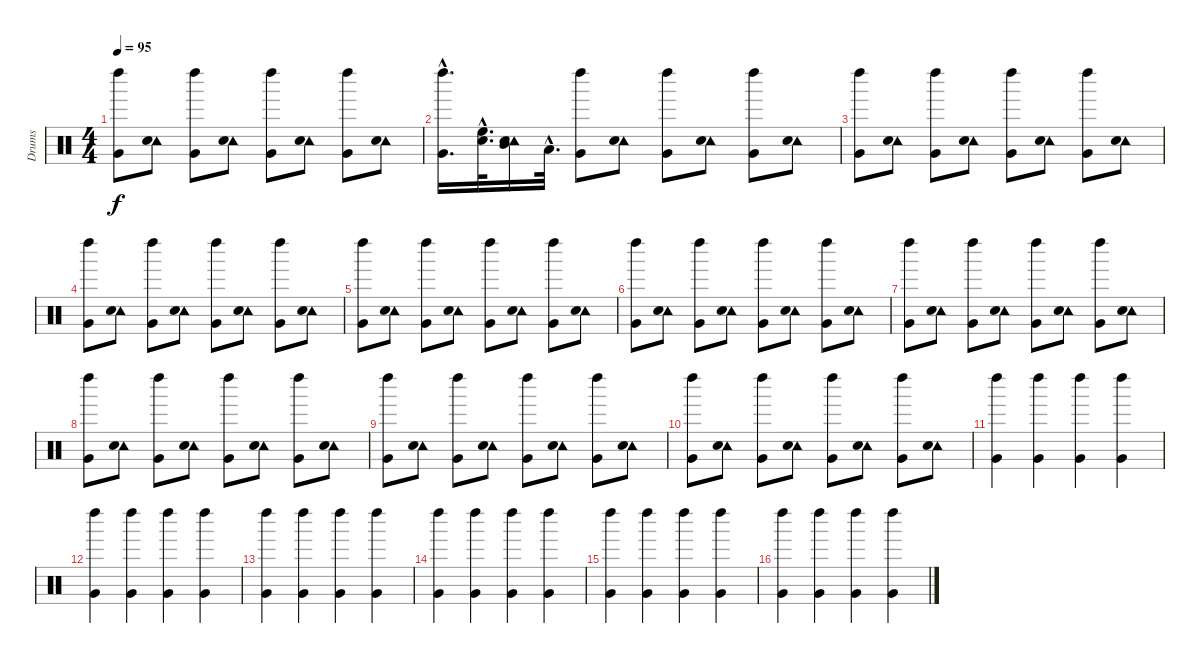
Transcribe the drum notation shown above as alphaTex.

\track ("Drums" "Drums") {instrument percussion}
\staff {score}
\articulation defaults
\ts (4 4)
\tempo 95
\clef neutral
\ks c
("Very Low Tom (hit)" "Left Maraca (hit)").8{dy f} ("Tambourine (hit)" "Snare (hit) 2").8 ("Very Low Tom (hit)" "Left Maraca (hit)").8 ("Tambourine (hit)" "Snare (hit) 2").8 ("Very Low Tom (hit)" "Left Maraca (hit)").8 ("Tambourine (hit)" "Snare (hit) 2").8 ("Very Low Tom (hit)" "Left Maraca (hit)").8 ("Tambourine (hit)" "Snare (hit) 2").8 |
("Very Low Tom (hit)"{hac} "Left Maraca (hit)"{hac}).16{d} ("High Floor Tom (hit)"{hac} "Snare (hit) 2"{hac}).32{d} ("Mid Tom (hit)" "Tambourine (hit)" "Snare (hit) 2").16 "Low Tom (hit)"{hac}.32{d} ("Very Low Tom (hit)" "Left Maraca (hit)").8 ("Tambourine (hit)" "Snare (hit) 2").8 ("Very Low Tom (hit)" "Left Maraca (hit)").8 ("Tambourine (hit)" "Snare (hit) 2").8 ("Very Low Tom (hit)" "Left Maraca (hit)").8 ("Tambourine (hit)" "Snare (hit) 2").8 |
("Very Low Tom (hit)" "Left Maraca (hit)").8 ("Tambourine (hit)" "Snare (hit) 2").8 ("Very Low Tom (hit)" "Left Maraca (hit)").8 ("Tambourine (hit)" "Snare (hit) 2").8 ("Very Low Tom (hit)" "Left Maraca (hit)").8 ("Tambourine (hit)" "Snare (hit) 2").8 ("Very Low Tom (hit)" "Left Maraca (hit)").8 ("Tambourine (hit)" "Snare (hit) 2").8 |
("Very Low Tom (hit)" "Left Maraca (hit)").8 ("Tambourine (hit)" "Snare (hit) 2").8 ("Very Low Tom (hit)" "Left Maraca (hit)").8 ("Tambourine (hit)" "Snare (hit) 2").8 ("Very Low Tom (hit)" "Left Maraca (hit)").8 ("Tambourine (hit)" "Snare (hit) 2").8 ("Very Low Tom (hit)" "Left Maraca (hit)").8 ("Tambourine (hit)" "Snare (hit) 2").8 |
("Very Low Tom (hit)" "Left Maraca (hit)").8 ("Tambourine (hit)" "Snare (hit) 2").8 ("Very Low Tom (hit)" "Left Maraca (hit)").8 ("Tambourine (hit)" "Snare (hit) 2").8 ("Very Low Tom (hit)" "Left Maraca (hit)").8 ("Tambourine (hit)" "Snare (hit) 2").8 ("Very Low Tom (hit)" "Left Maraca (hit)").8 ("Tambourine (hit)" "Snare (hit) 2").8 |
("Very Low Tom (hit)" "Left Maraca (hit)").8 ("Tambourine (hit)" "Snare (hit) 2").8 ("Very Low Tom (hit)" "Left Maraca (hit)").8 ("Tambourine (hit)" "Snare (hit) 2").8 ("Very Low Tom (hit)" "Left Maraca (hit)").8 ("Tambourine (hit)" "Snare (hit) 2").8 ("Very Low Tom (hit)" "Left Maraca (hit)").8 ("Tambourine (hit)" "Snare (hit) 2").8 |
("Very Low Tom (hit)" "Left Maraca (hit)").8 ("Tambourine (hit)" "Snare (hit) 2").8 ("Very Low Tom (hit)" "Left Maraca (hit)").8 ("Tambourine (hit)" "Snare (hit) 2").8 ("Very Low Tom (hit)" "Left Maraca (hit)").8 ("Tambourine (hit)" "Snare (hit) 2").8 ("Very Low Tom (hit)" "Left Maraca (hit)").8 ("Tambourine (hit)" "Snare (hit) 2").8 |
("Very Low Tom (hit)" "Left Maraca (hit)").8 ("Tambourine (hit)" "Snare (hit) 2").8 ("Very Low Tom (hit)" "Left Maraca (hit)").8 ("Tambourine (hit)" "Snare (hit) 2").8 ("Very Low Tom (hit)" "Left Maraca (hit)").8 ("Tambourine (hit)" "Snare (hit) 2").8 ("Very Low Tom (hit)" "Left Maraca (hit)").8 ("Tambourine (hit)" "Snare (hit) 2").8 |
("Very Low Tom (hit)" "Left Maraca (hit)").8 ("Tambourine (hit)" "Snare (hit) 2").8 ("Very Low Tom (hit)" "Left Maraca (hit)").8 ("Tambourine (hit)" "Snare (hit) 2").8 ("Very Low Tom (hit)" "Left Maraca (hit)").8 ("Tambourine (hit)" "Snare (hit) 2").8 ("Very Low Tom (hit)" "Left Maraca (hit)").8 ("Tambourine (hit)" "Snare (hit) 2").8 |
("Very Low Tom (hit)" "Left Maraca (hit)").8 ("Tambourine (hit)" "Snare (hit) 2").8 ("Very Low Tom (hit)" "Left Maraca (hit)").8 ("Tambourine (hit)" "Snare (hit) 2").8 ("Very Low Tom (hit)" "Left Maraca (hit)").8 ("Tambourine (hit)" "Snare (hit) 2").8 ("Very Low Tom (hit)" "Left Maraca (hit)").8 ("Tambourine (hit)" "Snare (hit) 2").8 |
("Very Low Tom (hit)" "Left Maraca (hit)").4 ("Very Low Tom (hit)" "Left Maraca (hit)").4 ("Very Low Tom (hit)" "Left Maraca (hit)").4 ("Very Low Tom (hit)" "Left Maraca (hit)").4 |
("Very Low Tom (hit)" "Left Maraca (hit)").4 ("Very Low Tom (hit)" "Left Maraca (hit)").4 ("Very Low Tom (hit)" "Left Maraca (hit)").4 ("Very Low Tom (hit)" "Left Maraca (hit)").4 |
("Very Low Tom (hit)" "Left Maraca (hit)").4 ("Very Low Tom (hit)" "Left Maraca (hit)").4 ("Very Low Tom (hit)" "Left Maraca (hit)").4 ("Very Low Tom (hit)" "Left Maraca (hit)").4 |
("Very Low Tom (hit)" "Left Maraca (hit)").4 ("Very Low Tom (hit)" "Left Maraca (hit)").4 ("Very Low Tom (hit)" "Left Maraca (hit)").4 ("Very Low Tom (hit)" "Left Maraca (hit)").4 |
("Very Low Tom (hit)" "Left Maraca (hit)").4 ("Very Low Tom (hit)" "Left Maraca (hit)").4 ("Very Low Tom (hit)" "Left Maraca (hit)").4 ("Very Low Tom (hit)" "Left Maraca (hit)").4 |
("Very Low Tom (hit)" "Left Maraca (hit)").4 ("Very Low Tom (hit)" "Left Maraca (hit)").4 ("Very Low Tom (hit)" "Left Maraca (hit)").4 ("Very Low Tom (hit)" "Left Maraca (hit)").4
